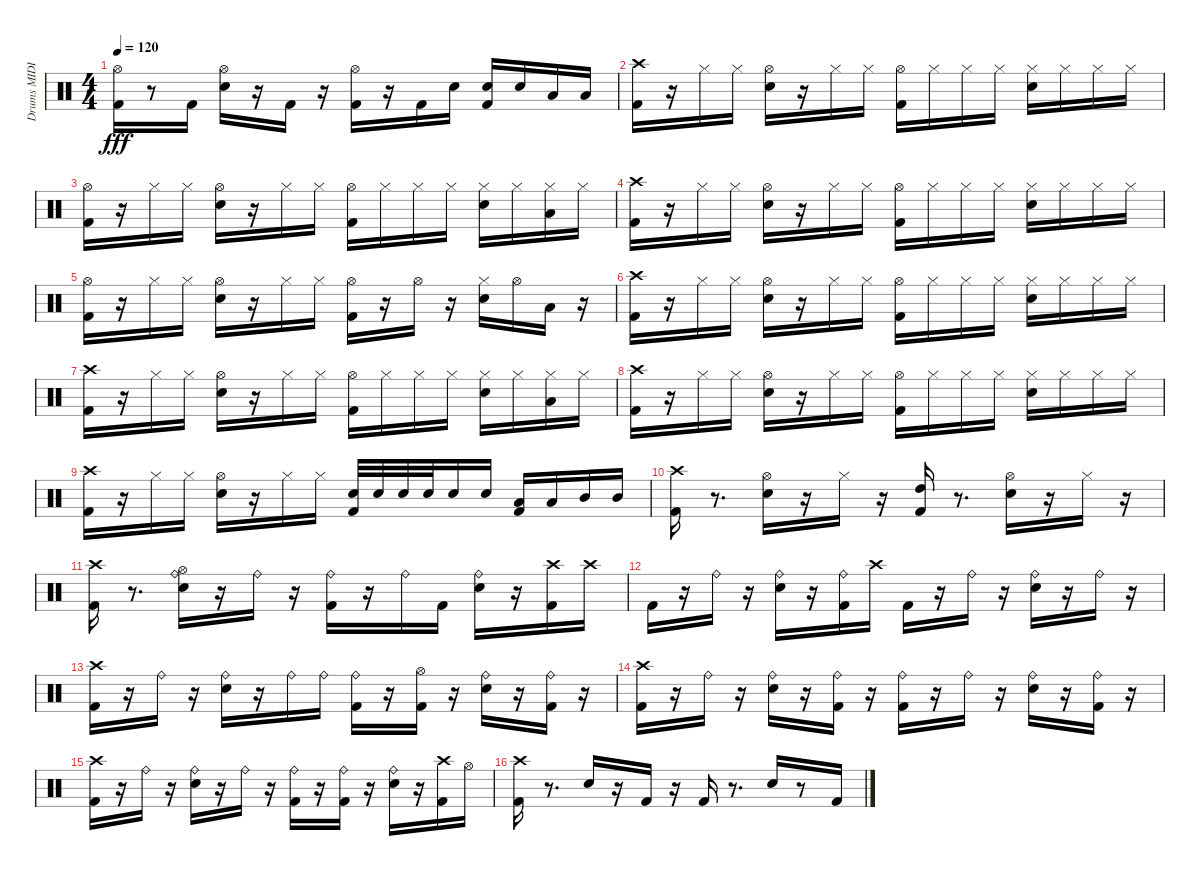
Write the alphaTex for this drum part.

\track ("Drums MIDI" "Drums MIDI") {instrument percussion}
\staff {score}
\articulation defaults
\ts (4 4)
\tempo 120
\clef neutral
\ks c
("Kick (hit) 2" "Hi-Hat (open)").16{dy fff} r.8 "Kick (hit) 2".16 ("Snare (hit) 2" "Hi-Hat (open)").16 r.16 "Kick (hit) 2".16 r.16 ("Kick (hit) 2" "Hi-Hat (open)").16 r.16 "Kick (hit) 2".16 "Snare (hit) 2".16 ("Kick (hit) 2" "Snare (hit) 2").16 "Snare (hit) 2".16 "Low Tom (hit)".16 "Low Tom (hit)".16 |
("Kick (hit) 2" "Crash high (hit)").16 r.16 "Hi-Hat (closed)".16 "Hi-Hat (closed)".16 ("Snare (hit) 2" "Hi-Hat (open)").16 r.16 "Hi-Hat (closed)".16 "Hi-Hat (closed)".16 ("Kick (hit) 2" "Hi-Hat (open)").16 "Hi-Hat (closed)".16 "Hi-Hat (closed)".16 "Hi-Hat (closed)".16 ("Snare (hit) 2" "Hi-Hat (closed)").16 "Hi-Hat (closed)".16 "Hi-Hat (closed)".16 "Hi-Hat (closed)".16 |
("Kick (hit) 2" "Hi-Hat (open)").16 r.16 "Hi-Hat (closed)".16 "Hi-Hat (closed)".16 ("Snare (hit) 2" "Hi-Hat (open)").16 r.16 "Hi-Hat (closed)".16 "Hi-Hat (closed)".16 ("Kick (hit) 2" "Hi-Hat (open)").16 "Hi-Hat (closed)".16 "Hi-Hat (closed)".16 "Hi-Hat (closed)".16 ("Snare (hit) 2" "Hi-Hat (closed)").16 "Hi-Hat (closed)".16 ("Hi-Hat (closed)" "Low Tom (hit)").16 "Hi-Hat (closed)".16 |
("Kick (hit) 2" "Crash high (hit)").16 r.16 "Hi-Hat (closed)".16 "Hi-Hat (closed)".16 ("Snare (hit) 2" "Hi-Hat (open)").16 r.16 "Hi-Hat (closed)".16 "Hi-Hat (closed)".16 ("Kick (hit) 2" "Hi-Hat (open)").16 "Hi-Hat (closed)".16 "Hi-Hat (closed)".16 "Hi-Hat (closed)".16 ("Snare (hit) 2" "Hi-Hat (closed)").16 "Hi-Hat (closed)".16 "Hi-Hat (closed)".16 "Hi-Hat (closed)".16 |
("Kick (hit) 2" "Hi-Hat (open)").16 r.16 "Hi-Hat (closed)".16 "Hi-Hat (closed)".16 ("Snare (hit) 2" "Hi-Hat (open)").16 r.16 "Hi-Hat (closed)".16 "Hi-Hat (closed)".16 ("Kick (hit) 2" "Hi-Hat (open)").16 r.16 "Hi-Hat (open)".16 r.16 ("Snare (hit) 2" "Hi-Hat (closed)").16 "Hi-Hat (open)".16 "Low Tom (hit)".16 r.16 |
("Kick (hit) 2" "Crash high (hit)").16 r.16 "Hi-Hat (closed)".16 "Hi-Hat (closed)".16 ("Snare (hit) 2" "Hi-Hat (open)").16 r.16 "Hi-Hat (closed)".16 "Hi-Hat (closed)".16 ("Kick (hit) 2" "Hi-Hat (open)").16 "Hi-Hat (closed)".16 "Hi-Hat (closed)".16 "Hi-Hat (closed)".16 ("Snare (hit) 2" "Hi-Hat (closed)").16 "Hi-Hat (closed)".16 "Hi-Hat (closed)".16 "Hi-Hat (closed)".16 |
("Kick (hit) 2" "Crash high (hit)").16 r.16 "Hi-Hat (closed)".16 "Hi-Hat (closed)".16 ("Snare (hit) 2" "Hi-Hat (open)").16 r.16 "Hi-Hat (closed)".16 "Hi-Hat (closed)".16 ("Kick (hit) 2" "Hi-Hat (open)").16 "Hi-Hat (closed)".16 "Hi-Hat (closed)".16 "Hi-Hat (closed)".16 ("Snare (hit) 2" "Hi-Hat (closed)").16 "Hi-Hat (closed)".16 ("Hi-Hat (closed)" "Low Tom (hit)").16 "Hi-Hat (closed)".16 |
("Kick (hit) 2" "Crash high (hit)").16 r.16 "Hi-Hat (closed)".16 "Hi-Hat (closed)".16 ("Snare (hit) 2" "Hi-Hat (open)").16 r.16 "Hi-Hat (closed)".16 "Hi-Hat (closed)".16 ("Kick (hit) 2" "Hi-Hat (open)").16 "Hi-Hat (closed)".16 "Hi-Hat (closed)".16 "Hi-Hat (closed)".16 ("Snare (hit) 2" "Hi-Hat (closed)").16 "Hi-Hat (closed)".16 "Hi-Hat (closed)".16 "Hi-Hat (closed)".16 |
("Kick (hit) 2" "Crash high (hit)").16 r.16 "Hi-Hat (closed)".16 "Hi-Hat (closed)".16 ("Snare (hit) 2" "Hi-Hat (open)").16 r.16 "Hi-Hat (closed)".16 "Hi-Hat (closed)".16 ("Kick (hit) 2" "Snare (hit) 2").32 "Snare (hit) 2".32 "Snare (hit) 2".32 "Snare (hit) 2".32 "Snare (hit) 2".16 "Snare (hit) 2".16 ("Kick (hit) 2" "Low Tom (hit)").16 "Low Tom (hit)".16 "Mid Tom (hit)".16 "Mid Tom (hit)".16 |
("Kick (hit) 2" "Crash high (hit)").16 r.8{d} ("Snare (hit) 2" "Hi-Hat (open)").16 r.16 "Hi-Hat (closed)".16 r.16 ("Kick (hit) 2" "High Tom (hit)").16 r.8{d} ("Snare (hit) 2" "Hi-Hat (open)").16 r.16 "Hi-Hat (closed)".16 r.16 |
("Kick (hit) 2" "Crash high (hit)").16 r.8{d} ("Snare (hit) 2" "Hi-Hat (open)" "Ride (bell)").16 r.16 "Ride (bell)".16 r.16 ("Kick (hit) 2" "Ride (bell)").16 r.16 "Ride (bell)".16 "Kick (hit) 2".16 ("Snare (hit) 2" "Ride (bell)").16 r.16 ("Kick (hit) 2" "Crash high (hit)").16 "Crash high (hit)".16 |
"Kick (hit) 2".16 r.16 "Ride (bell)".16 r.16 ("Snare (hit) 2" "Ride (bell)").16 r.16 ("Kick (hit) 2" "Ride (bell)").16 "Crash high (hit)".16 "Kick (hit) 2".16 r.16 "Ride (bell)".16 r.16 ("Snare (hit) 2" "Ride (bell)").16 r.16 "Ride (bell)".16 r.16 |
("Kick (hit) 2" "Crash high (hit)").16 r.16 "Ride (bell)".16 r.16 ("Snare (hit) 2" "Ride (bell)").16 r.16 "Ride (bell)".16 "Ride (bell)".16 ("Kick (hit) 2" "Ride (bell)").16 r.16 ("Kick (hit) 2" "Hi-Hat (open)").16 r.16 ("Snare (hit) 2" "Ride (bell)").16 r.16 ("Kick (hit) 2" "Ride (bell)").16 r.16 |
("Kick (hit) 2" "Crash high (hit)").16 r.16 "Ride (bell)".16 r.16 ("Snare (hit) 2" "Ride (bell)").16 r.16 ("Kick (hit) 2" "Ride (bell)").16 r.16 ("Kick (hit) 2" "Ride (bell)").16 r.16 "Ride (bell)".16 r.16 ("Snare (hit) 2" "Ride (bell)").16 r.16 ("Kick (hit) 2" "Ride (bell)").16 r.16 |
("Kick (hit) 2" "Crash high (hit)").16 r.16 "Ride (bell)".16 r.16 ("Snare (hit) 2" "Ride (bell)").16 r.16 "Ride (bell)".16 r.16 ("Kick (hit) 2" "Ride (bell)").16 r.16 ("Kick (hit) 2" "Ride (bell)").16 r.16 ("Snare (hit) 2" "Ride (bell)").16 r.16 ("Kick (hit) 2" "Crash high (hit)").16 "Hi-Hat (open)".16 |
("Kick (hit) 2" "Crash high (hit)").16 r.8{d} "Snare (hit) 2".16 r.16 "Kick (hit) 2".16 r.16 "Kick (hit) 2".16 r.8{d} "Snare (hit) 2".16 r.8 "Kick (hit) 2".16
